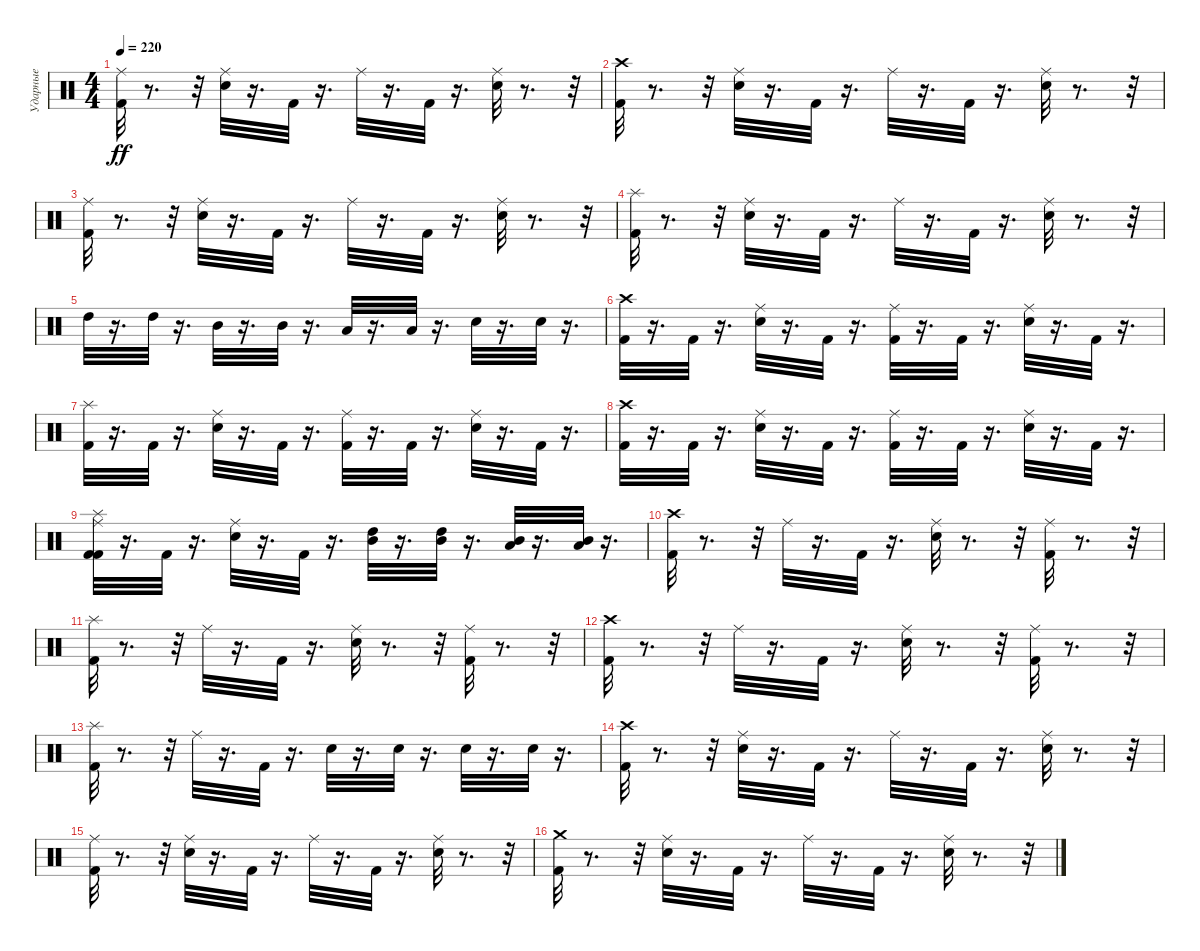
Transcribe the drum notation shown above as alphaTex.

\track ("Ударные" "Ударные") {instrument percussion}
\staff {score}
\articulation defaults
\ts (4 4)
\tempo 220
\clef neutral
\ks c
("Kick (hit) 2" "Ride (middle)").32{dy ff} r.8{d} r.32 ("Snare (hit) 2" "Ride (middle)").32 r.16{d} "Kick (hit) 2".32 r.16{d} "Ride (middle)".32 r.16{d} "Kick (hit) 2".32 r.16{d} ("Snare (hit) 2" "Ride (middle)").32 r.8{d} r.32 |
("Crash high (hit)" "Kick (hit) 2").32 r.8{d} r.32 ("Ride (middle)" "Snare (hit) 2").32 r.16{d} "Kick (hit) 2".32 r.16{d} "Ride (middle)".32 r.16{d} "Kick (hit) 2".32 r.16{d} ("Ride (middle)" "Snare (hit) 2").32 r.8{d} r.32 |
("Kick (hit) 2" "Ride (middle)").32 r.8{d} r.32 ("Snare (hit) 2" "Ride (middle)").32 r.16{d} "Kick (hit) 2".32 r.16{d} "Ride (middle)".32 r.16{d} "Kick (hit) 2".32 r.16{d} ("Snare (hit) 2" "Ride (middle)").32 r.8{d} r.32 |
("Splash (hit)" "Kick (hit) 2").32 r.8{d} r.32 ("Ride (middle)" "Snare (hit) 2").32 r.16{d} "Kick (hit) 2".32 r.16{d} "Ride (middle)".32 r.16{d} "Kick (hit) 2".32 r.16{d} ("Ride (middle)" "Snare (hit) 2").32 r.8{d} r.32 |
"High Tom (hit)".32 r.16{d} "High Tom (hit)".32 r.16{d} "Mid Tom (hit)".32 r.16{d} "Mid Tom (hit)".32 r.16{d} "Low Tom (hit)".32 r.16{d} "Low Tom (hit)".32 r.16{d} "Snare (hit) 2".32 r.16{d} "Snare (hit) 2".32 r.16{d} |
("Crash high (hit)" "Kick (hit) 2").32 r.16{d} "Kick (hit) 2".32 r.16{d} ("Ride (middle)" "Snare (hit) 2").32 r.16{d} "Kick (hit) 2".32 r.16{d} ("Ride (middle)" "Kick (hit) 2").32 r.16{d} "Kick (hit) 2".32 r.16{d} ("Snare (hit) 2" "Ride (middle)").32 r.16{d} "Kick (hit) 2".32 r.16{d} |
("Kick (hit) 2" "Splash (hit)").32 r.16{d} "Kick (hit) 2".32 r.16{d} ("Snare (hit) 2" "Ride (middle)").32 r.16{d} "Kick (hit) 2".32 r.16{d} ("Kick (hit) 2" "Ride (middle)").32 r.16{d} "Kick (hit) 2".32 r.16{d} ("Snare (hit) 2" "Ride (middle)").32 r.16{d} "Kick (hit) 2".32 r.16{d} |
("Crash high (hit)" "Kick (hit) 2").32 r.16{d} "Kick (hit) 2".32 r.16{d} ("Ride (middle)" "Snare (hit) 2").32 r.16{d} "Kick (hit) 2".32 r.16{d} ("Ride (middle)" "Kick (hit) 2").32 r.16{d} "Kick (hit) 2".32 r.16{d} ("Snare (hit) 2" "Ride (middle)").32 r.16{d} "Kick (hit) 2".32 r.16{d} |
("Ride (middle)" "Kick (hit) 2" "Kick (hit) 2" "Splash (hit)").32 r.16{d} "Kick (hit) 2".32 r.16{d} ("Ride (middle)" "Snare (hit) 2").32 r.16{d} "Kick (hit) 2".32 r.16{d} ("Mid Tom (hit)" "High Tom (hit)").32 r.16{d} ("Mid Tom (hit)" "High Tom (hit)").32 r.16{d} ("Low Tom (hit)" "Mid Tom (hit)").32 r.16{d} ("Low Tom (hit)" "Mid Tom (hit)").32 r.16{d} |
("Kick (hit) 2" "Crash high (hit)").32 r.8{d} r.32 "Ride (middle)".32 r.16{d} "Kick (hit) 2".32 r.16{d} ("Snare (hit) 2" "Ride (middle)").32 r.8{d} r.32 ("Kick (hit) 2" "Ride (middle)").32 r.8{d} r.32 |
("Splash (hit)" "Kick (hit) 2").32 r.8{d} r.32 "Ride (middle)".32 r.16{d} "Kick (hit) 2".32 r.16{d} ("Ride (middle)" "Snare (hit) 2").32 r.8{d} r.32 ("Ride (middle)" "Kick (hit) 2").32 r.8{d} r.32 |
("Kick (hit) 2" "Crash high (hit)").32 r.8{d} r.32 "Ride (middle)".32 r.16{d} "Kick (hit) 2".32 r.16{d} ("Snare (hit) 2" "Ride (middle)").32 r.8{d} r.32 ("Kick (hit) 2" "Ride (middle)").32 r.8{d} r.32 |
("Splash (hit)" "Kick (hit) 2").32 r.8{d} r.32 "Ride (middle)".32 r.16{d} "Kick (hit) 2".32 r.16{d} "Snare (hit) 2".32 r.16{d} "Snare (hit) 2".32 r.16{d} "Snare (hit) 2".32 r.16{d} "Snare (hit) 2".32 r.16{d} |
("Crash high (hit)" "Kick (hit) 2").32 r.8{d} r.32 ("Ride (middle)" "Snare (hit) 2").32 r.16{d} "Kick (hit) 2".32 r.16{d} "Ride (middle)".32 r.16{d} "Kick (hit) 2".32 r.16{d} ("Ride (middle)" "Snare (hit) 2").32 r.8{d} r.32 |
("Kick (hit) 2" "Ride (middle)").32 r.8{d} r.32 ("Snare (hit) 2" "Ride (middle)").32 r.16{d} "Kick (hit) 2".32 r.16{d} "Ride (middle)".32 r.16{d} "Kick (hit) 2".32 r.16{d} ("Snare (hit) 2" "Ride (middle)").32 r.8{d} r.32 |
("Crash medium (hit)" "Kick (hit) 2").32 r.8{d} r.32 ("Ride (middle)" "Snare (hit) 2").32 r.16{d} "Kick (hit) 2".32 r.16{d} "Ride (middle)".32 r.16{d} "Kick (hit) 2".32 r.16{d} ("Ride (middle)" "Snare (hit) 2").32 r.8{d} r.32
